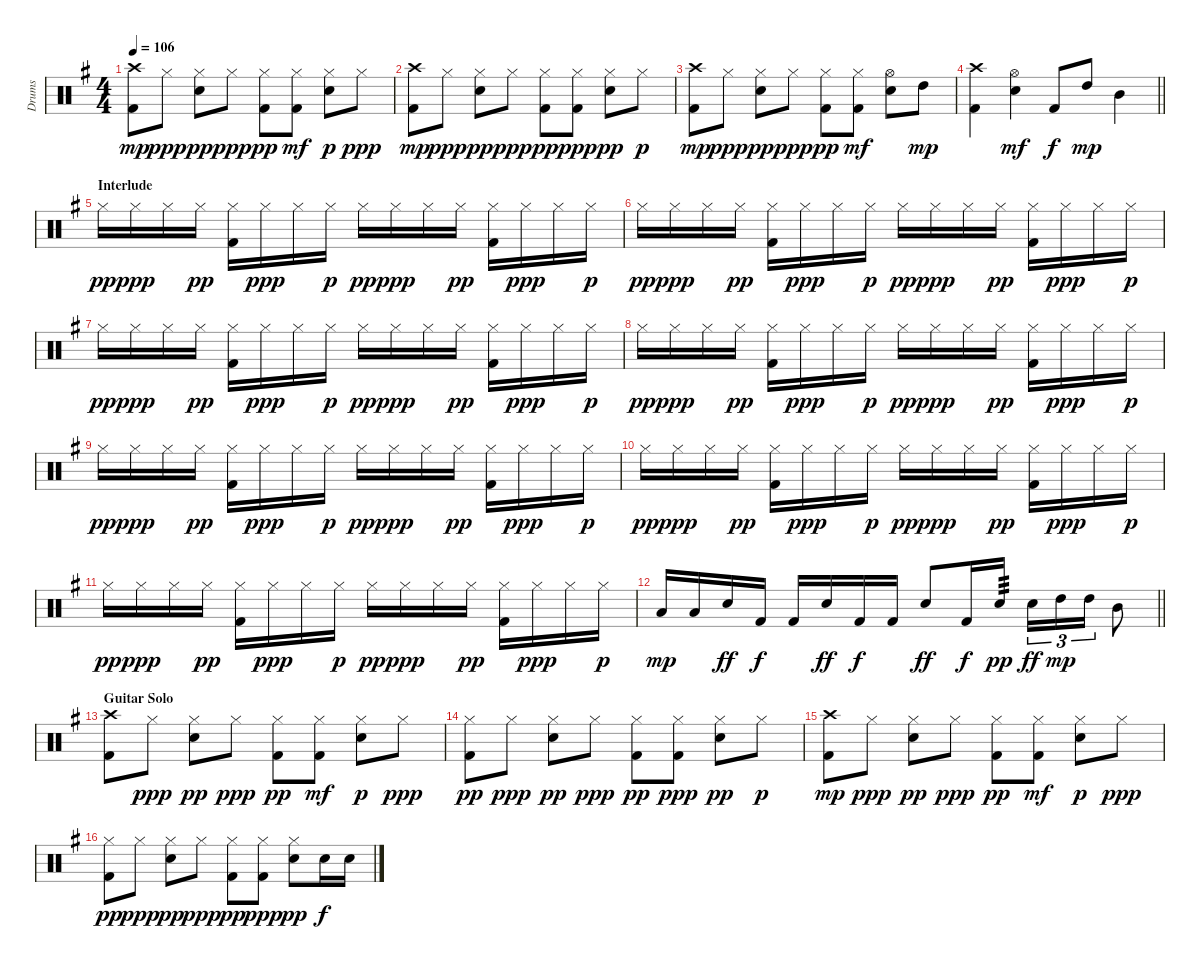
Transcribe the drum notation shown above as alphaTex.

\track ("Drums" "Drums") {instrument percussion}
\staff {score}
\articulation defaults
\ts (4 4)
\tempo 106
\clef neutral
\ks g
("Kick (hit) 2" "Crash high (hit)").8{dy mp} "Hi-Hat (closed)".8{dy ppp} ("Hi-Hat (closed)" "Electric Snare (hit)").8{dy pp} "Hi-Hat (closed)".8{dy ppp} ("Hi-Hat (closed)" "Kick (hit) 2").8{dy pp} ("Hi-Hat (closed)" "Kick (hit) 2").8{dy mf} ("Hi-Hat (closed)" "Electric Snare (hit)").8{dy p} "Hi-Hat (closed)".8{dy ppp} |
("Kick (hit) 2" "Crash high (hit)").8{dy mp} "Hi-Hat (closed)".8{dy ppp} ("Hi-Hat (closed)" "Electric Snare (hit)").8{dy pp} "Hi-Hat (closed)".8{dy ppp} ("Hi-Hat (closed)" "Kick (hit) 2").8{dy pp} ("Hi-Hat (closed)" "Kick (hit) 2").8{dy ppp} ("Hi-Hat (closed)" "Electric Snare (hit)").8{dy pp} "Hi-Hat (closed)".8{dy p} |
("Kick (hit) 2" "Crash high (hit)").8{dy mp} "Hi-Hat (closed)".8{dy ppp} ("Hi-Hat (closed)" "Electric Snare (hit)").8{dy pp} "Hi-Hat (closed)".8{dy ppp} ("Hi-Hat (closed)" "Kick (hit) 2").8{dy pp} ("Hi-Hat (closed)" "Kick (hit) 2").8{dy mf} ("Hi-Hat (open)" "Electric Snare (hit)").8 "High Tom (hit)".8{dy mp} |
\barLineRight lightlight
("Kick (hit) 2" "Crash high (hit)").4 ("Hi-Hat (open)" "Electric Snare (hit)").4{dy mf} "Kick (hit) 2".8{dy f} "High Tom (hit)".8{dy mp} "Mid Tom (hit)".4 |
\section ("" "Interlude")
"Hi-Hat (closed)".16{dy pp volume 8} "Hi-Hat (closed)".16{dy ppp} "Hi-Hat (closed)".16 "Hi-Hat (closed)".16{dy pp} ("Hi-Hat (closed)" "Kick (hit) 2").16 "Hi-Hat (closed)".16{dy ppp} "Hi-Hat (closed)".16 "Hi-Hat (closed)".16{dy p} "Hi-Hat (closed)".16{dy pp} "Hi-Hat (closed)".16{dy ppp} "Hi-Hat (closed)".16 "Hi-Hat (closed)".16{dy pp} ("Hi-Hat (closed)" "Kick (hit) 2").16 "Hi-Hat (closed)".16{dy ppp} "Hi-Hat (closed)".16 "Hi-Hat (closed)".16{dy p} |
"Hi-Hat (closed)".16{dy pp} "Hi-Hat (closed)".16{dy ppp} "Hi-Hat (closed)".16 "Hi-Hat (closed)".16{dy pp} ("Hi-Hat (closed)" "Kick (hit) 2").16 "Hi-Hat (closed)".16{dy ppp} "Hi-Hat (closed)".16 "Hi-Hat (closed)".16{dy p} "Hi-Hat (closed)".16{dy pp} "Hi-Hat (closed)".16{dy ppp} "Hi-Hat (closed)".16 "Hi-Hat (closed)".16{dy pp} ("Hi-Hat (closed)" "Kick (hit) 2").16 "Hi-Hat (closed)".16{dy ppp} "Hi-Hat (closed)".16 "Hi-Hat (closed)".16{dy p} |
"Hi-Hat (closed)".16{dy pp} "Hi-Hat (closed)".16{dy ppp} "Hi-Hat (closed)".16 "Hi-Hat (closed)".16{dy pp} ("Hi-Hat (closed)" "Kick (hit) 2").16 "Hi-Hat (closed)".16{dy ppp} "Hi-Hat (closed)".16 "Hi-Hat (closed)".16{dy p} "Hi-Hat (closed)".16{dy pp} "Hi-Hat (closed)".16{dy ppp} "Hi-Hat (closed)".16 "Hi-Hat (closed)".16{dy pp} ("Hi-Hat (closed)" "Kick (hit) 2").16 "Hi-Hat (closed)".16{dy ppp} "Hi-Hat (closed)".16 "Hi-Hat (closed)".16{dy p} |
"Hi-Hat (closed)".16{dy pp} "Hi-Hat (closed)".16{dy ppp} "Hi-Hat (closed)".16 "Hi-Hat (closed)".16{dy pp} ("Hi-Hat (closed)" "Kick (hit) 2").16 "Hi-Hat (closed)".16{dy ppp} "Hi-Hat (closed)".16 "Hi-Hat (closed)".16{dy p} "Hi-Hat (closed)".16{dy pp} "Hi-Hat (closed)".16{dy ppp} "Hi-Hat (closed)".16 "Hi-Hat (closed)".16{dy pp} ("Hi-Hat (closed)" "Kick (hit) 2").16 "Hi-Hat (closed)".16{dy ppp} "Hi-Hat (closed)".16 "Hi-Hat (closed)".16{dy p} |
"Hi-Hat (closed)".16{dy pp} "Hi-Hat (closed)".16{dy ppp} "Hi-Hat (closed)".16 "Hi-Hat (closed)".16{dy pp} ("Hi-Hat (closed)" "Kick (hit) 2").16 "Hi-Hat (closed)".16{dy ppp} "Hi-Hat (closed)".16 "Hi-Hat (closed)".16{dy p} "Hi-Hat (closed)".16{dy pp} "Hi-Hat (closed)".16{dy ppp} "Hi-Hat (closed)".16 "Hi-Hat (closed)".16{dy pp} ("Hi-Hat (closed)" "Kick (hit) 2").16 "Hi-Hat (closed)".16{dy ppp} "Hi-Hat (closed)".16 "Hi-Hat (closed)".16{dy p} |
"Hi-Hat (closed)".16{dy pp} "Hi-Hat (closed)".16{dy ppp} "Hi-Hat (closed)".16 "Hi-Hat (closed)".16{dy pp} ("Hi-Hat (closed)" "Kick (hit) 2").16 "Hi-Hat (closed)".16{dy ppp} "Hi-Hat (closed)".16 "Hi-Hat (closed)".16{dy p} "Hi-Hat (closed)".16{dy pp} "Hi-Hat (closed)".16{dy ppp} "Hi-Hat (closed)".16 "Hi-Hat (closed)".16{dy pp} ("Hi-Hat (closed)" "Kick (hit) 2").16 "Hi-Hat (closed)".16{dy ppp} "Hi-Hat (closed)".16 "Hi-Hat (closed)".16{dy p} |
"Hi-Hat (closed)".16{dy pp} "Hi-Hat (closed)".16{dy ppp} "Hi-Hat (closed)".16 "Hi-Hat (closed)".16{dy pp} ("Hi-Hat (closed)" "Kick (hit) 2").16 "Hi-Hat (closed)".16{dy ppp} "Hi-Hat (closed)".16 "Hi-Hat (closed)".16{dy p} "Hi-Hat (closed)".16{dy pp} "Hi-Hat (closed)".16{dy ppp} "Hi-Hat (closed)".16 "Hi-Hat (closed)".16{dy pp} ("Hi-Hat (closed)" "Kick (hit) 2").16 "Hi-Hat (closed)".16{dy ppp} "Hi-Hat (closed)".16 "Hi-Hat (closed)".16{dy p} |
\barLineRight lightlight "Low Tom (hit)".16{dy mp volume 13} "Low Tom (hit)".16 "Electric Snare (hit)".16{dy ff} "Kick (hit) 2".16{dy f} "Kick (hit) 2".16 "Electric Snare (hit)".16{dy ff} "Kick (hit) 2".16{dy f} "Kick (hit) 2".16 "Electric Snare (hit)".8{dy ff} "Kick (hit) 2".16{dy f} "Electric Snare (hit)".16{tp 3 dy pp} "Electric Snare (hit)".16{tu (3 2) dy ff} "High Tom (hit)".16{tu (3 2) dy mp} "High Tom (hit)".16{tu (3 2)} "Mid Tom (hit)".8
|
\section ("" "Guitar Solo")
("Kick (hit) 2" "Crash high (hit)").8 "Hi-Hat (closed)".8{dy ppp} ("Hi-Hat (closed)" "Electric Snare (hit)").8{dy pp} "Hi-Hat (closed)".8{dy ppp} ("Hi-Hat (closed)" "Kick (hit) 2").8{dy pp} ("Hi-Hat (closed)" "Kick (hit) 2").8{dy mf} ("Hi-Hat (closed)" "Electric Snare (hit)").8{dy p} "Hi-Hat (closed)".8{dy ppp} |
("Hi-Hat (closed)" "Kick (hit) 2").8{dy pp} "Hi-Hat (closed)".8{dy ppp} ("Hi-Hat (closed)" "Electric Snare (hit)").8{dy pp} "Hi-Hat (closed)".8{dy ppp} ("Hi-Hat (closed)" "Kick (hit) 2").8{dy pp} ("Hi-Hat (closed)" "Kick (hit) 2").8{dy ppp} ("Hi-Hat (closed)" "Electric Snare (hit)").8{dy pp} "Hi-Hat (closed)".8{dy p} |
("Kick (hit) 2" "Crash high (hit)").8{dy mp} "Hi-Hat (closed)".8{dy ppp} ("Hi-Hat (closed)" "Electric Snare (hit)").8{dy pp} "Hi-Hat (closed)".8{dy ppp} ("Hi-Hat (closed)" "Kick (hit) 2").8{dy pp} ("Hi-Hat (closed)" "Kick (hit) 2").8{dy mf} ("Hi-Hat (closed)" "Electric Snare (hit)").8{dy p} "Hi-Hat (closed)".8{dy ppp} |
("Hi-Hat (closed)" "Kick (hit) 2").8{dy pp} "Hi-Hat (closed)".8{dy ppp} ("Hi-Hat (closed)" "Electric Snare (hit)").8{dy pp} "Hi-Hat (closed)".8{dy ppp} ("Hi-Hat (closed)" "Kick (hit) 2").8{dy pp} ("Hi-Hat (closed)" "Kick (hit) 2").8{dy ppp} ("Hi-Hat (closed)" "Electric Snare (hit)").8{dy pp} "Electric Snare (hit)".16{dy f} "Electric Snare (hit)".16
